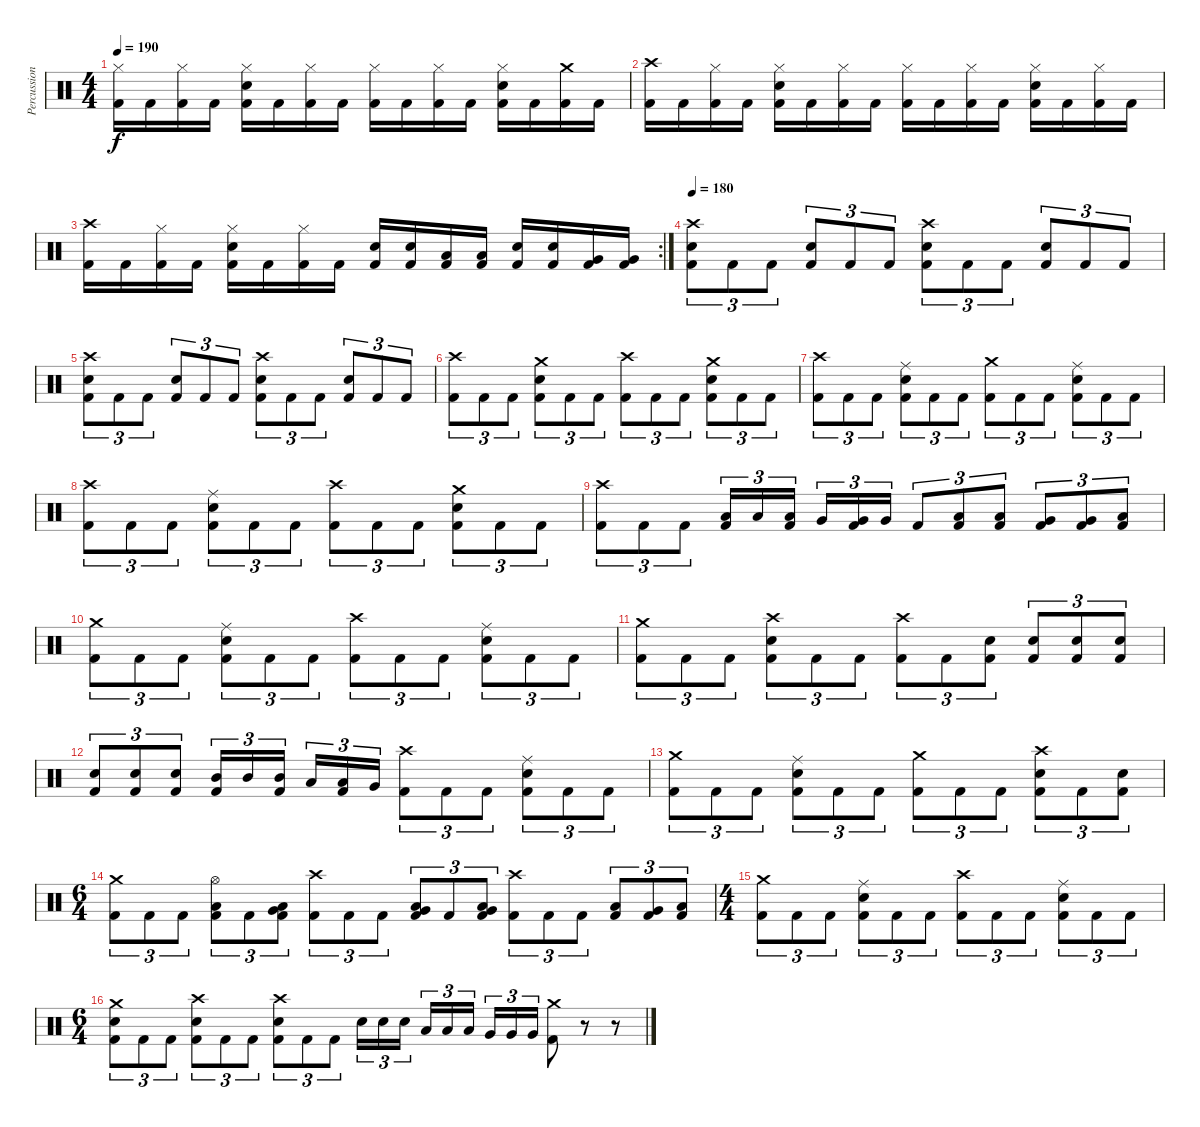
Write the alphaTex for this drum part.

\track ("Percussion" "Percussion") {instrument percussion}
\staff {score}
\articulation defaults
\ts (4 4)
\tempo 190
\clef neutral
\ks c
("Hi-Hat (closed)" "Kick (hit) 2").16{dy f} "Kick (hit) 2".16 ("Hi-Hat (closed)" "Kick (hit) 2").16 "Kick (hit) 2".16 ("Hi-Hat (closed)" "Snare (hit) 2" "Kick (hit) 2").16 "Kick (hit) 2".16 ("Hi-Hat (closed)" "Kick (hit) 2").16 "Kick (hit) 2".16 ("Hi-Hat (closed)" "Kick (hit) 2").16 "Kick (hit) 2".16 ("Hi-Hat (closed)" "Kick (hit) 2").16 "Kick (hit) 2".16 ("Hi-Hat (closed)" "Snare (hit) 2" "Kick (hit) 2").16 "Kick (hit) 2".16 ("Crash medium (hit)" "Kick (hit) 2").16 "Kick (hit) 2".16 |
("Crash high (hit)" "Kick (hit) 2").16 "Kick (hit) 2".16 ("Hi-Hat (closed)" "Kick (hit) 2").16 "Kick (hit) 2".16 ("Hi-Hat (closed)" "Snare (hit) 2" "Kick (hit) 2").16 "Kick (hit) 2".16 ("Hi-Hat (closed)" "Kick (hit) 2").16 "Kick (hit) 2".16 ("Hi-Hat (closed)" "Kick (hit) 2").16 "Kick (hit) 2".16 ("Hi-Hat (closed)" "Kick (hit) 2").16 "Kick (hit) 2".16 ("Hi-Hat (closed)" "Snare (hit) 2" "Kick (hit) 2").16 "Kick (hit) 2".16 ("Hi-Hat (closed)" "Kick (hit) 2").16 "Kick (hit) 2".16 |
\rc 2
("Crash high (hit)" "Kick (hit) 2").16 "Kick (hit) 2".16 ("Hi-Hat (closed)" "Kick (hit) 2").16 "Kick (hit) 2".16 ("Hi-Hat (closed)" "Snare (hit) 2" "Kick (hit) 2").16 "Kick (hit) 2".16 ("Hi-Hat (closed)" "Kick (hit) 2").16 "Kick (hit) 2".16 ("Snare (hit) 2" "Kick (hit) 2").16 ("Snare (hit) 2" "Kick (hit) 2").16 ("Low Floor Tom (hit)" "Kick (hit) 2").16 ("Low Floor Tom (hit)" "Kick (hit) 2").16 ("Snare (hit) 2" "Kick (hit) 2").16 ("Snare (hit) 2" "Kick (hit) 2").16 ("Very Low Tom (hit)" "Kick (hit) 2").16 ("Very Low Tom (hit)" "Kick (hit) 2").16 |
\tempo 180
("Crash high (hit)" "Snare (hit) 2" "Kick (hit) 2").8{tu (3 2)} "Kick (hit) 2".8{tu (3 2)} "Kick (hit) 2".8{tu (3 2)} ("Snare (hit) 2" "Kick (hit) 2").8{tu (3 2)} "Kick (hit) 2".8{tu (3 2)} "Kick (hit) 2".8{tu (3 2)} ("Crash high (hit)" "Snare (hit) 2" "Kick (hit) 2").8{tu (3 2)} "Kick (hit) 2".8{tu (3 2)} "Kick (hit) 2".8{tu (3 2)} ("Snare (hit) 2" "Kick (hit) 2").8{tu (3 2)} "Kick (hit) 2".8{tu (3 2)} "Kick (hit) 2".8{tu (3 2)} |
("Crash high (hit)" "Snare (hit) 2" "Kick (hit) 2").8{tu (3 2)} "Kick (hit) 2".8{tu (3 2)} "Kick (hit) 2".8{tu (3 2)} ("Snare (hit) 2" "Kick (hit) 2").8{tu (3 2)} "Kick (hit) 2".8{tu (3 2)} "Kick (hit) 2".8{tu (3 2)} ("Crash high (hit)" "Snare (hit) 2" "Kick (hit) 2").8{tu (3 2)} "Kick (hit) 2".8{tu (3 2)} "Kick (hit) 2".8{tu (3 2)} ("Snare (hit) 2" "Kick (hit) 2").8{tu (3 2)} "Kick (hit) 2".8{tu (3 2)} "Kick (hit) 2".8{tu (3 2)} |
("Crash high (hit)" "Kick (hit) 2").8{tu (3 2)} "Kick (hit) 2".8{tu (3 2)} "Kick (hit) 2".8{tu (3 2)} ("Crash medium (hit)" "Snare (hit) 2" "Kick (hit) 2").8{tu (3 2)} "Kick (hit) 2".8{tu (3 2)} "Kick (hit) 2".8{tu (3 2)} ("Crash high (hit)" "Kick (hit) 2").8{tu (3 2)} "Kick (hit) 2".8{tu (3 2)} "Kick (hit) 2".8{tu (3 2)} ("Crash medium (hit)" "Snare (hit) 2" "Kick (hit) 2").8{tu (3 2)} "Kick (hit) 2".8{tu (3 2)} "Kick (hit) 2".8{tu (3 2)} |
("Crash high (hit)" "Kick (hit) 2").8{tu (3 2)} "Kick (hit) 2".8{tu (3 2)} "Kick (hit) 2".8{tu (3 2)} ("Ride (middle)" "Snare (hit) 2" "Kick (hit) 2").8{tu (3 2)} "Kick (hit) 2".8{tu (3 2)} "Kick (hit) 2".8{tu (3 2)} ("Crash medium (hit)" "Kick (hit) 2").8{tu (3 2)} "Kick (hit) 2".8{tu (3 2)} "Kick (hit) 2".8{tu (3 2)} ("Ride (middle)" "Snare (hit) 2" "Kick (hit) 2").8{tu (3 2)} "Kick (hit) 2".8{tu (3 2)} "Kick (hit) 2".8{tu (3 2)} |
("Crash high (hit)" "Kick (hit) 2").8{tu (3 2)} "Kick (hit) 2".8{tu (3 2)} "Kick (hit) 2".8{tu (3 2)} ("Ride (middle)" "Snare (hit) 2" "Kick (hit) 2").8{tu (3 2)} "Kick (hit) 2".8{tu (3 2)} "Kick (hit) 2".8{tu (3 2)} ("Crash high (hit)" "Kick (hit) 2").8{tu (3 2)} "Kick (hit) 2".8{tu (3 2)} "Kick (hit) 2".8{tu (3 2)} ("Crash medium (hit)" "Snare (hit) 2" "Kick (hit) 2").8{tu (3 2)} "Kick (hit) 2".8{tu (3 2)} "Kick (hit) 2".8{tu (3 2)} |
("Crash high (hit)" "Kick (hit) 2").8{tu (3 2)} "Kick (hit) 2".8{tu (3 2)} "Kick (hit) 2".8{tu (3 2)} ("Low Tom (hit)" "Kick (hit) 2").16{tu (3 2)} "Low Tom (hit)".16{tu (3 2)} ("Low Tom (hit)" "Kick (hit) 2").16{tu (3 2)} "Very Low Tom (hit)".16{tu (3 2)} ("Very Low Tom (hit)" "Kick (hit) 2").16{tu (3 2)} "Very Low Tom (hit)".16{tu (3 2)} "Kick (hit) 2".8{tu (3 2)} ("Low Tom (hit)" "Kick (hit) 2").8{tu (3 2)} ("Low Tom (hit)" "Kick (hit) 2").8{tu (3 2)} ("Very Low Tom (hit)" "Kick (hit) 2").8{tu (3 2)} ("Very Low Tom (hit)" "Kick (hit) 2").8{tu (3 2)} ("Low Floor Tom (hit)" "Kick (hit) 2").8{tu (3 2)} |
("Crash medium (hit)" "Kick (hit) 2").8{tu (3 2)} "Kick (hit) 2".8{tu (3 2)} "Kick (hit) 2".8{tu (3 2)} ("Ride (middle)" "Snare (hit) 2" "Kick (hit) 2").8{tu (3 2)} "Kick (hit) 2".8{tu (3 2)} "Kick (hit) 2".8{tu (3 2)} ("Crash high (hit)" "Kick (hit) 2").8{tu (3 2)} "Kick (hit) 2".8{tu (3 2)} "Kick (hit) 2".8{tu (3 2)} ("Ride (middle)" "Snare (hit) 2" "Kick (hit) 2").8{tu (3 2)} "Kick (hit) 2".8{tu (3 2)} "Kick (hit) 2".8{tu (3 2)} |
("Crash medium (hit)" "Kick (hit) 2").8{tu (3 2)} "Kick (hit) 2".8{tu (3 2)} "Kick (hit) 2".8{tu (3 2)} ("Crash high (hit)" "Snare (hit) 2" "Kick (hit) 2").8{tu (3 2)} "Kick (hit) 2".8{tu (3 2)} "Kick (hit) 2".8{tu (3 2)} ("Crash high (hit)" "Kick (hit) 2").8{tu (3 2)} "Kick (hit) 2".8{tu (3 2)} ("Snare (hit) 2" "Kick (hit) 2").8{tu (3 2)} ("Snare (hit) 2" "Kick (hit) 2").8{tu (3 2)} ("Snare (hit) 2" "Kick (hit) 2").8{tu (3 2)} ("Snare (hit) 2" "Kick (hit) 2").8{tu (3 2)} |
("Snare (hit) 2" "Kick (hit) 2").8{tu (3 2)} ("Snare (hit) 2" "Kick (hit) 2").8{tu (3 2)} ("Snare (hit) 2" "Kick (hit) 2").8{tu (3 2)} ("Mid Tom (hit)" "Kick (hit) 2").16{tu (3 2)} "Mid Tom (hit)".16{tu (3 2)} ("Mid Tom (hit)" "Kick (hit) 2").16{tu (3 2)} "Low Tom (hit)".16{tu (3 2)} ("Low Tom (hit)" "Kick (hit) 2").16{tu (3 2)} "Very Low Tom (hit)".16{tu (3 2)} ("Crash high (hit)" "Kick (hit) 2").8{tu (3 2)} "Kick (hit) 2".8{tu (3 2)} "Kick (hit) 2".8{tu (3 2)} ("Ride (middle)" "Snare (hit) 2" "Kick (hit) 2").8{tu (3 2)} "Kick (hit) 2".8{tu (3 2)} "Kick (hit) 2".8{tu (3 2)} |
("Crash medium (hit)" "Kick (hit) 2").8{tu (3 2)} "Kick (hit) 2".8{tu (3 2)} "Kick (hit) 2".8{tu (3 2)} ("Ride (middle)" "Snare (hit) 2" "Kick (hit) 2").8{tu (3 2)} "Kick (hit) 2".8{tu (3 2)} "Kick (hit) 2".8{tu (3 2)} ("Crash medium (hit)" "Kick (hit) 2").8{tu (3 2)} "Kick (hit) 2".8{tu (3 2)} "Kick (hit) 2".8{tu (3 2)} ("Crash high (hit)" "Snare (hit) 2" "Kick (hit) 2").8{tu (3 2)} "Kick (hit) 2".8{tu (3 2)} ("Snare (hit) 2" "Kick (hit) 2").8{tu (3 2)} |
\ts (6 4)
("Crash medium (hit)" "Kick (hit) 2").8{tu (3 2)} "Kick (hit) 2".8{tu (3 2)} "Kick (hit) 2".8{tu (3 2)} ("Hi-Hat (open)" "Low Tom (hit)" "Kick (hit) 2").8{tu (3 2)} "Kick (hit) 2".8{tu (3 2)} ("Low Tom (hit)" "Very Low Tom (hit)" "Kick (hit) 2").8{tu (3 2)} ("Crash high (hit)" "Kick (hit) 2").8{tu (3 2)} "Kick (hit) 2".8{tu (3 2)} "Kick (hit) 2".8{tu (3 2)} ("Low Tom (hit)" "Very Low Tom (hit)" "Kick (hit) 2").8{tu (3 2)} "Kick (hit) 2".8{tu (3 2)} ("Very Low Tom (hit)" "Low Floor Tom (hit)" "Kick (hit) 2").8{tu (3 2)} ("Crash high (hit)" "Kick (hit) 2").8{tu (3 2)} "Kick (hit) 2".8{tu (3 2)} "Kick (hit) 2".8{tu (3 2)} ("Low Tom (hit)" "Kick (hit) 2").8{tu (3 2)} ("Very Low Tom (hit)" "Kick (hit) 2").8{tu (3 2)} ("Low Floor Tom (hit)" "Kick (hit) 2").8{tu (3 2)} |
\ts (4 4)
("Crash medium (hit)" "Kick (hit) 2").8{tu (3 2)} "Kick (hit) 2".8{tu (3 2)} "Kick (hit) 2".8{tu (3 2)} ("Ride (middle)" "Snare (hit) 2" "Kick (hit) 2").8{tu (3 2)} "Kick (hit) 2".8{tu (3 2)} "Kick (hit) 2".8{tu (3 2)} ("Crash high (hit)" "Kick (hit) 2").8{tu (3 2)} "Kick (hit) 2".8{tu (3 2)} "Kick (hit) 2".8{tu (3 2)} ("Ride (middle)" "Snare (hit) 2" "Kick (hit) 2").8{tu (3 2)} "Kick (hit) 2".8{tu (3 2)} "Kick (hit) 2".8{tu (3 2)} |
\ts (6 4)
("Crash medium (hit)" "Snare (hit) 2" "Kick (hit) 2").8{tu (3 2)} "Kick (hit) 2".8{tu (3 2)} "Kick (hit) 2".8{tu (3 2)} ("Crash high (hit)" "Snare (hit) 2" "Kick (hit) 2").8{tu (3 2)} "Kick (hit) 2".8{tu (3 2)} "Kick (hit) 2".8{tu (3 2)} ("Crash high (hit)" "Snare (hit) 2" "Kick (hit) 2").8{tu (3 2)} "Kick (hit) 2".8{tu (3 2)} "Kick (hit) 2".8{tu (3 2)} "Snare (hit) 2".16{tu (3 2)} "Snare (hit) 2".16{tu (3 2)} "Snare (hit) 2".16{tu (3 2)} "Low Tom (hit)".16{tu (3 2)} "Low Tom (hit)".16{tu (3 2)} "Low Tom (hit)".16{tu (3 2)} "Very Low Tom (hit)".16{tu (3 2)} "Very Low Tom (hit)".16{tu (3 2)} "Very Low Tom (hit)".16{tu (3 2)} ("Crash medium (hit)" "Kick (hit) 2").8 r.8 r.8
